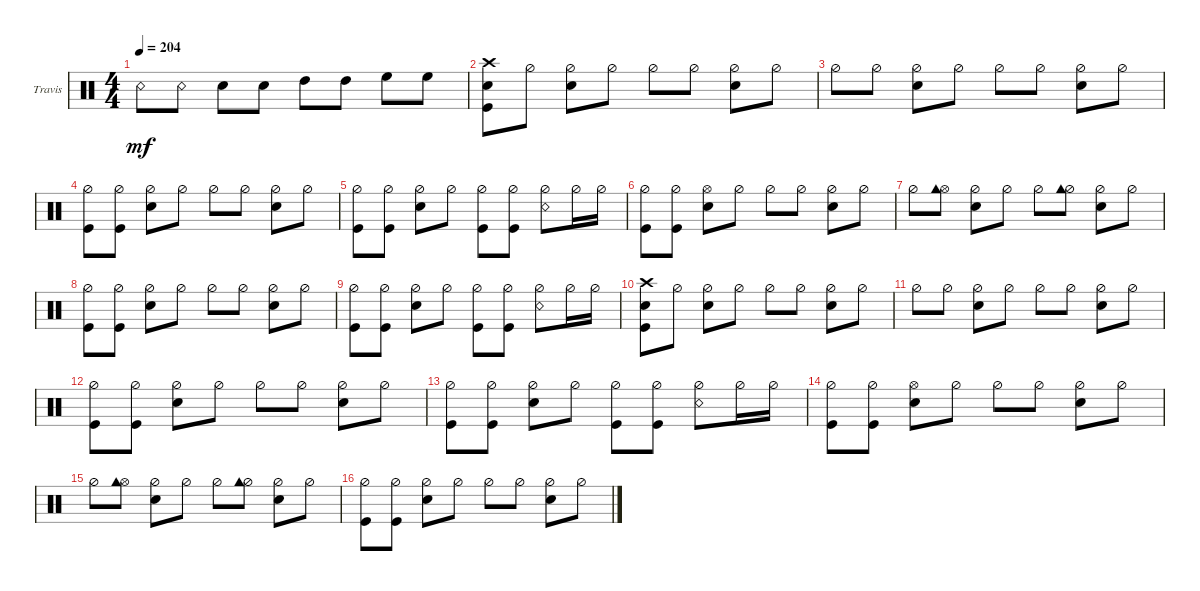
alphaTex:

\defaultSystemsLayout 4
\bracketExtendMode groupsimilarinstruments
\firstSystemTrackNameOrientation horizontal
\otherSystemsTrackNameOrientation horizontal
\track ("Travis Barker" "Travis") {instrument percussion}
\staff {score}
\articulation defaults
\ts (4 4)
\tempo 204
\clef neutral
\ks c "Snare (rim shot)".8{dy mf} "Snare (rim shot)".8 "Snare (hit) 2".8 "Snare (hit) 2".8 "High Tom (hit)".8 "High Tom (hit)".8 "High Floor Tom (hit)".8 "High Floor Tom (hit)".8
|
("Crash high (hit)" "Kick (hit)" "Snare (hit) 2").8 "Hi-Hat (half)".8 ("Hi-Hat (half)" "Snare (hit) 2").8 "Hi-Hat (half)".8 "Hi-Hat (half)".8 "Hi-Hat (half)".8 ("Hi-Hat (half)" "Snare (hit) 2").8 "Hi-Hat (half)".8 |
"Hi-Hat (half)".8 "Hi-Hat (half)".8 ("Hi-Hat (half)" "Snare (hit) 2").8 "Hi-Hat (half)".8 "Hi-Hat (half)".8 "Hi-Hat (half)".8 ("Hi-Hat (half)" "Snare (hit) 2").8 "Hi-Hat (half)".8 |
("Hi-Hat (half)" "Kick (hit)").8 ("Kick (hit)" "Hi-Hat (half)").8 ("Hi-Hat (half)" "Snare (hit) 2").8 "Hi-Hat (half)".8 "Hi-Hat (half)".8 "Hi-Hat (half)".8 ("Hi-Hat (half)" "Snare (hit) 2").8 "Hi-Hat (half)".8 |
("Hi-Hat (half)" "Kick (hit)").8 ("Hi-Hat (half)" "Kick (hit)").8 ("Hi-Hat (half)" "Snare (hit) 2").8 "Hi-Hat (half)".8 ("Hi-Hat (half)" "Kick (hit)").8 ("Hi-Hat (half)" "Kick (hit)").8 ("Hi-Hat (half)" "Snare (rim shot)").8 "Hi-Hat (half)".16 "Hi-Hat (half)".16 |
("Hi-Hat (half)" "Kick (hit)").8 ("Kick (hit)" "Hi-Hat (half)").8 ("Hi-Hat (open)" "Snare (hit) 2").8 "Hi-Hat (half)".8 "Hi-Hat (half)".8 "Hi-Hat (half)".8 ("Hi-Hat (half)" "Snare (hit) 2").8 "Hi-Hat (half)".8 |
"Hi-Hat (half)".8 ("Hi-Hat (open)" "Cowbell high (hit)").8 ("Hi-Hat (half)" "Snare (hit) 2").8 "Hi-Hat (half)".8 "Hi-Hat (half)".8 ("Hi-Hat (half)" "Cowbell high (hit)").8 ("Hi-Hat (half)" "Snare (hit) 2").8 "Hi-Hat (half)".8 |
("Hi-Hat (half)" "Kick (hit)").8 ("Kick (hit)" "Hi-Hat (half)").8 ("Hi-Hat (half)" "Snare (hit) 2").8 "Hi-Hat (half)".8 "Hi-Hat (half)".8 "Hi-Hat (half)".8 ("Hi-Hat (half)" "Snare (hit) 2").8 "Hi-Hat (half)".8 |
("Hi-Hat (half)" "Kick (hit)").8 ("Hi-Hat (half)" "Kick (hit)").8 ("Hi-Hat (half)" "Snare (hit) 2").8 "Hi-Hat (half)".8 ("Hi-Hat (half)" "Kick (hit)").8 ("Hi-Hat (half)" "Kick (hit)").8 ("Hi-Hat (half)" "Snare (rim shot)").8 "Hi-Hat (half)".16 "Hi-Hat (half)".16 |
("Crash high (hit)" "Kick (hit)" "Snare (hit) 2").8 "Hi-Hat (half)".8 ("Hi-Hat (half)" "Snare (hit) 2").8 "Hi-Hat (half)".8 "Hi-Hat (half)".8 "Hi-Hat (half)".8 ("Hi-Hat (half)" "Snare (hit) 2").8 "Hi-Hat (half)".8 |
"Hi-Hat (half)".8 "Hi-Hat (half)".8 ("Hi-Hat (half)" "Snare (hit) 2").8 "Hi-Hat (half)".8 "Hi-Hat (half)".8 "Hi-Hat (half)".8 ("Hi-Hat (half)" "Snare (hit) 2").8 "Hi-Hat (half)".8 |
("Hi-Hat (half)" "Kick (hit)").8 ("Kick (hit)" "Hi-Hat (half)").8 ("Hi-Hat (half)" "Snare (hit) 2").8 "Hi-Hat (half)".8 "Hi-Hat (half)".8 "Hi-Hat (half)".8 ("Hi-Hat (half)" "Snare (hit) 2").8 "Hi-Hat (half)".8 |
("Hi-Hat (half)" "Kick (hit)").8 ("Hi-Hat (half)" "Kick (hit)").8 ("Hi-Hat (half)" "Snare (hit) 2").8 "Hi-Hat (half)".8 ("Hi-Hat (half)" "Kick (hit)").8 ("Hi-Hat (half)" "Kick (hit)").8 ("Hi-Hat (half)" "Snare (rim shot)").8 "Hi-Hat (half)".16 "Hi-Hat (half)".16 |
("Hi-Hat (half)" "Kick (hit)").8 ("Kick (hit)" "Hi-Hat (half)").8 ("Hi-Hat (open)" "Snare (hit) 2").8 "Hi-Hat (half)".8 "Hi-Hat (half)".8 "Hi-Hat (half)".8 ("Hi-Hat (half)" "Snare (hit) 2").8 "Hi-Hat (half)".8 |
"Hi-Hat (half)".8 ("Hi-Hat (open)" "Cowbell high (hit)").8 ("Hi-Hat (half)" "Snare (hit) 2").8 "Hi-Hat (half)".8 "Hi-Hat (half)".8 ("Hi-Hat (half)" "Cowbell high (hit)").8 ("Hi-Hat (half)" "Snare (hit) 2").8 "Hi-Hat (half)".8 |
("Hi-Hat (half)" "Kick (hit)").8 ("Kick (hit)" "Hi-Hat (half)").8 ("Hi-Hat (half)" "Snare (hit) 2").8 "Hi-Hat (half)".8 "Hi-Hat (half)".8 "Hi-Hat (half)".8 ("Hi-Hat (half)" "Snare (hit) 2").8 "Hi-Hat (half)".8
